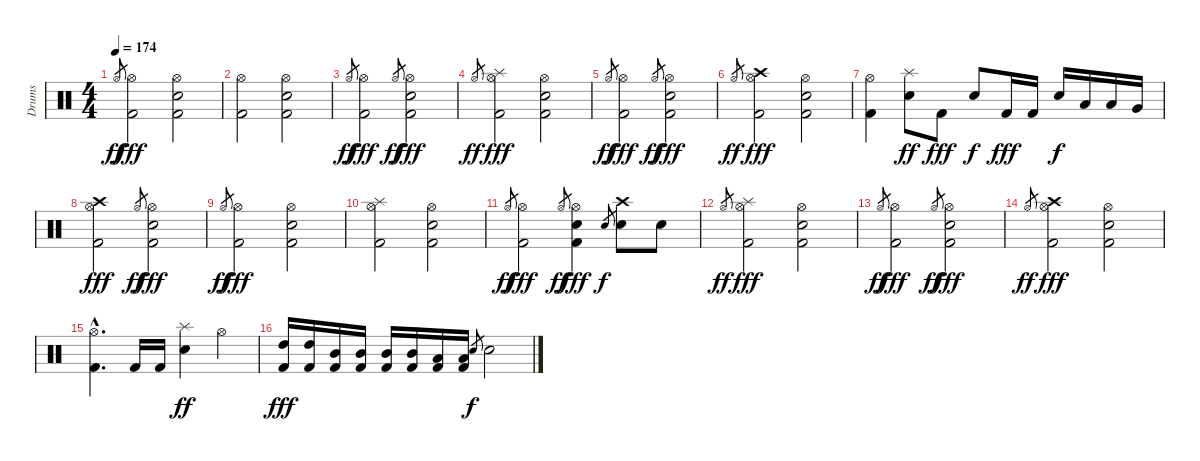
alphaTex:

\track ("Drums" "Drums") {instrument percussion}
\staff {score}
\articulation defaults
\ts (4 4)
\tempo 174
\clef neutral
\ks c "Hi-Hat (open)".8{gr dy ff}
("Hi-Hat (open)" "Kick (hit) 2").2{dy fff} ("Hi-Hat (open)" "Snare (hit) 2" "Kick (hit) 2").2 |
("Hi-Hat (open)" "Kick (hit) 2").2 ("Hi-Hat (open)" "Snare (hit) 2" "Kick (hit) 2").2 |
"Hi-Hat (open)".8{gr dy ff} ("Hi-Hat (open)" "Kick (hit) 2").2{dy fff} "Hi-Hat (open)".8{gr dy ff} ("Hi-Hat (open)" "Snare (hit) 2" "Kick (hit) 2").2{dy fff} |
"Hi-Hat (open)".8{gr dy ff} ("Splash (hit)" "Hi-Hat (open)" "Kick (hit) 2").2{dy fff} ("Hi-Hat (open)" "Snare (hit) 2" "Kick (hit) 2").2 |
"Hi-Hat (open)".8{gr dy ff} ("Hi-Hat (open)" "Kick (hit) 2").2{dy fff} "Hi-Hat (open)".8{gr dy ff} ("Hi-Hat (open)" "Snare (hit) 2" "Kick (hit) 2").2{dy fff} |
"Hi-Hat (open)".8{gr dy ff} ("Crash high (hit)" "Hi-Hat (open)" "Kick (hit) 2").2{dy fff} ("Hi-Hat (open)" "Snare (hit) 2" "Kick (hit) 2").2 |
("Hi-Hat (open)" "Kick (hit) 2").4 ("Splash (hit)" "Snare (hit) 2").8{dy ff} "Kick (hit) 2".8{dy fff} "Snare (hit) 2".8{dy f} "Kick (hit) 2".16{dy fff} "Kick (hit) 2".16 "Snare (hit) 2".16{dy f} "Low Tom (hit)".16 "Low Tom (hit)".16 "Very Low Tom (hit)".16 |
("Crash high (hit)" "Hi-Hat (open)" "Kick (hit) 2").2{dy fff} "Hi-Hat (open)".8{gr dy ff} ("Hi-Hat (open)" "Snare (hit) 2" "Kick (hit) 2").2{dy fff} |
"Hi-Hat (open)".8{gr dy ff} ("Hi-Hat (open)" "Kick (hit) 2").2{dy fff} ("Hi-Hat (open)" "Snare (hit) 2" "Kick (hit) 2").2 |
("Splash (hit)" "Hi-Hat (open)" "Kick (hit) 2").2 ("Hi-Hat (open)" "Snare (hit) 2" "Kick (hit) 2").2 |
"Hi-Hat (open)".8{gr dy ff} ("Hi-Hat (open)" "Kick (hit) 2").2{dy fff} "Hi-Hat (open)".8{gr dy ff} ("Hi-Hat (open)" "Snare (hit) 2" "Kick (hit) 2").4{dy fff} "Snare (hit) 2".8{gr dy f} ("Crash high (hit)" "Snare (hit) 2").8 "Snare (hit) 2".8 |
"Hi-Hat (open)".8{gr dy ff} ("Splash (hit)" "Hi-Hat (open)" "Kick (hit) 2").2{dy fff} ("Hi-Hat (open)" "Snare (hit) 2" "Kick (hit) 2").2 |
"Hi-Hat (open)".8{gr dy ff} ("Hi-Hat (open)" "Kick (hit) 2").2{dy fff} "Hi-Hat (open)".8{gr dy ff} ("Hi-Hat (open)" "Snare (hit) 2" "Kick (hit) 2").2{dy fff} |
"Hi-Hat (open)".8{gr dy ff} ("Crash high (hit)" "Hi-Hat (open)" "Kick (hit) 2").2{dy fff} ("Hi-Hat (open)" "Snare (hit) 2" "Kick (hit) 2").2 |
("Hi-Hat (open)"{hac} "Kick (hit) 2"{hac}).4{d} "Kick (hit) 2".16 "Kick (hit) 2".16 ("Splash (hit)" "Snare (hit) 2").4{dy ff} "Hi-Hat (open)".4 |
("High Tom (hit)" "Kick (hit) 2").16{dy fff} ("High Tom (hit)" "Kick (hit) 2").16 ("Mid Tom (hit)" "Kick (hit) 2").16 ("Mid Tom (hit)" "Kick (hit) 2").16 ("Mid Tom (hit)" "Kick (hit) 2").16 ("Mid Tom (hit)" "Kick (hit) 2").16 ("Low Tom (hit)" "Kick (hit) 2").16 ("Low Tom (hit)" "Kick (hit) 2").16 "Snare (hit) 2".8{gr dy f} "Snare (hit) 2".2
